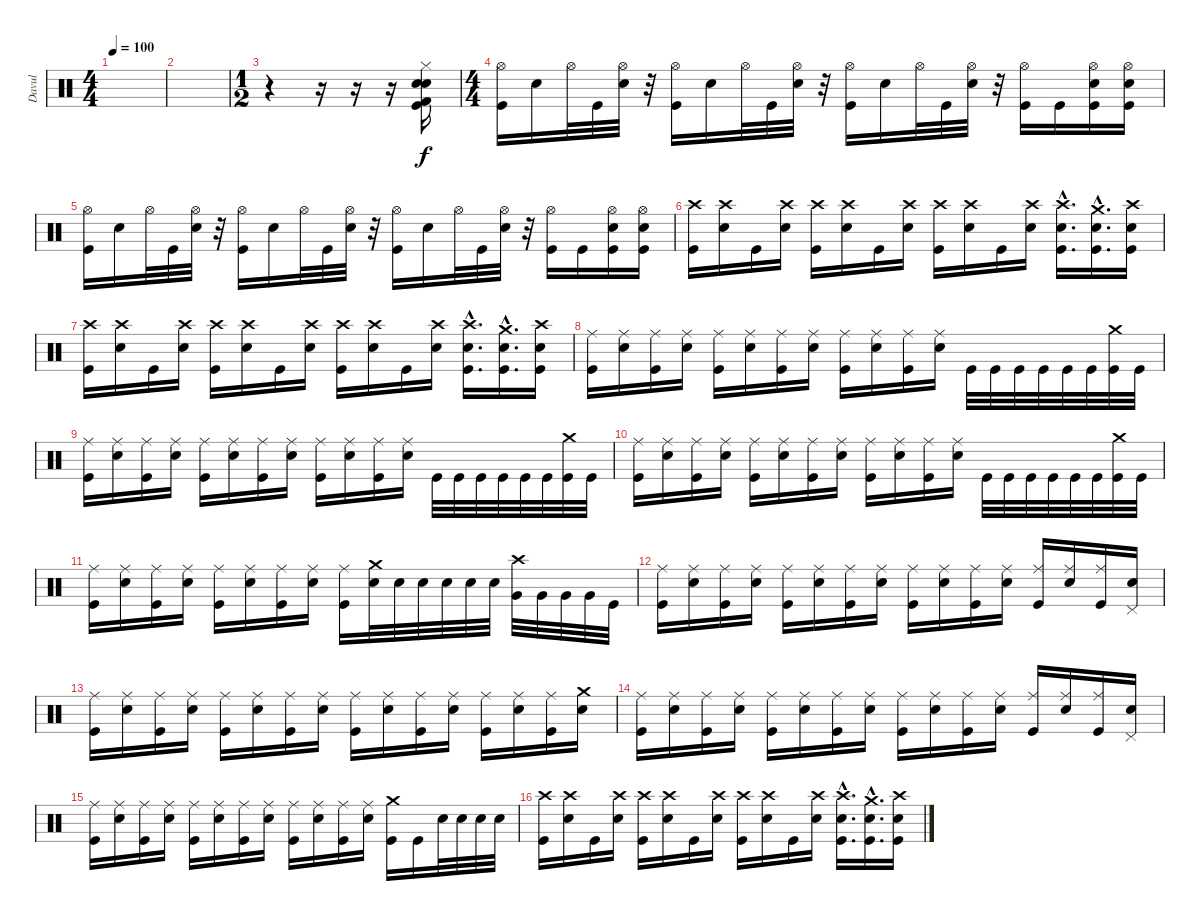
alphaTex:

\track ("Davul" "Davul") {instrument percussion}
\staff {score}
\articulation defaults
\ts (4 4)
\tempo 100
\clef neutral
\ks c
|
|
\ts (1 2)
r.4 r.16 r.16 r.16 ("Hi-Hat (closed)" "Kick (hit) 2" "Electric Snare (hit)" "Snare (hit) 2" "Kick (hit)").16 |
\ts (4 4)
("Hi-Hat (open)" "Kick (hit)").16 "Electric Snare (hit)".16 "Hi-Hat (open)".32 "Kick (hit)".32 ("Hi-Hat (open)" "Electric Snare (hit)").32 r.32 ("Hi-Hat (open)" "Kick (hit)").16 "Electric Snare (hit)".16 "Hi-Hat (open)".32 "Kick (hit)".32 ("Hi-Hat (open)" "Electric Snare (hit)").32 r.32 ("Hi-Hat (open)" "Kick (hit)").16 "Electric Snare (hit)".16 "Hi-Hat (open)".32 "Kick (hit)".32 ("Hi-Hat (open)" "Electric Snare (hit)").32 r.32 ("Hi-Hat (open)" "Kick (hit)").16 "Kick (hit)".16 ("Hi-Hat (open)" "Electric Snare (hit)" "Kick (hit)").16 ("Hi-Hat (open)" "Electric Snare (hit)" "Kick (hit)").16 |
("Hi-Hat (open)" "Kick (hit)").16 "Electric Snare (hit)".16 "Hi-Hat (open)".32 "Kick (hit)".32 ("Hi-Hat (open)" "Electric Snare (hit)").32 r.32 ("Hi-Hat (open)" "Kick (hit)").16 "Electric Snare (hit)".16 "Hi-Hat (open)".32 "Kick (hit)".32 ("Hi-Hat (open)" "Electric Snare (hit)").32 r.32 ("Hi-Hat (open)" "Kick (hit)").16 "Electric Snare (hit)".16 "Hi-Hat (open)".32 "Kick (hit)".32 ("Hi-Hat (open)" "Electric Snare (hit)").32 r.32 ("Hi-Hat (open)" "Kick (hit)").16 "Kick (hit)".16 ("Hi-Hat (open)" "Electric Snare (hit)" "Kick (hit)").16 ("Hi-Hat (open)" "Electric Snare (hit)" "Kick (hit)").16 |
("Crash high (hit)" "Kick (hit)").16 ("Crash high (hit)" "Electric Snare (hit)").16 "Kick (hit)".16 ("Crash high (hit)" "Electric Snare (hit)").16 ("Crash high (hit)" "Kick (hit)").16 ("Crash high (hit)" "Electric Snare (hit)").16 "Kick (hit)".16 ("Crash high (hit)" "Electric Snare (hit)").16 ("Crash high (hit)" "Kick (hit)").16 ("Crash high (hit)" "Electric Snare (hit)").16 "Kick (hit)".16 ("Crash high (hit)" "Electric Snare (hit)").16 ("Crash high (hit)"{hac} "Electric Snare (hit)"{hac} "Kick (hit)"{hac}).16{d} ("Crash medium (hit)"{hac} "Electric Snare (hit)"{hac} "Kick (hit)"{hac}).16{d} ("Crash high (hit)" "Electric Snare (hit)" "Kick (hit)").16 |
("Crash high (hit)" "Kick (hit)").16 ("Crash high (hit)" "Electric Snare (hit)").16 "Kick (hit)".16 ("Crash high (hit)" "Electric Snare (hit)").16 ("Crash high (hit)" "Kick (hit)").16 ("Crash high (hit)" "Electric Snare (hit)").16 "Kick (hit)".16 ("Crash high (hit)" "Electric Snare (hit)").16 ("Crash high (hit)" "Kick (hit)").16 ("Crash high (hit)" "Electric Snare (hit)").16 "Kick (hit)".16 ("Crash high (hit)" "Electric Snare (hit)").16 ("Crash high (hit)"{hac} "Electric Snare (hit)"{hac} "Kick (hit)"{hac}).16{d} ("Crash medium (hit)"{hac} "Electric Snare (hit)"{hac} "Kick (hit)"{hac}).16{d} ("Crash high (hit)" "Electric Snare (hit)" "Kick (hit)").16 |
("Ride (middle)" "Kick (hit)").16 ("Ride (middle)" "Electric Snare (hit)").16 ("Ride (middle)" "Kick (hit)").16 ("Ride (middle)" "Electric Snare (hit)").16 ("Ride (middle)" "Kick (hit)").16 ("Ride (middle)" "Electric Snare (hit)").16 ("Ride (middle)" "Kick (hit)").16 ("Ride (middle)" "Electric Snare (hit)").16 ("Ride (middle)" "Kick (hit)").16 ("Ride (middle)" "Electric Snare (hit)").16 ("Ride (middle)" "Kick (hit)").16 ("Ride (middle)" "Electric Snare (hit)").16 "Kick (hit)".32 "Kick (hit)".32 "Kick (hit)".32 "Kick (hit)".32 "Kick (hit)".32 "Kick (hit)".32 ("Crash medium (hit)" "Kick (hit)").32 "Kick (hit)".32 |
("Ride (middle)" "Kick (hit)").16 ("Ride (middle)" "Electric Snare (hit)").16 ("Ride (middle)" "Kick (hit)").16 ("Ride (middle)" "Electric Snare (hit)").16 ("Ride (middle)" "Kick (hit)").16 ("Ride (middle)" "Electric Snare (hit)").16 ("Ride (middle)" "Kick (hit)").16 ("Ride (middle)" "Electric Snare (hit)").16 ("Ride (middle)" "Kick (hit)").16 ("Ride (middle)" "Electric Snare (hit)").16 ("Ride (middle)" "Kick (hit)").16 ("Ride (middle)" "Electric Snare (hit)").16 "Kick (hit)".32 "Kick (hit)".32 "Kick (hit)".32 "Kick (hit)".32 "Kick (hit)".32 "Kick (hit)".32 ("Crash medium (hit)" "Kick (hit)").32 "Kick (hit)".32 |
("Ride (middle)" "Kick (hit)").16 ("Ride (middle)" "Electric Snare (hit)").16 ("Ride (middle)" "Kick (hit)").16 ("Ride (middle)" "Electric Snare (hit)").16 ("Ride (middle)" "Kick (hit)").16 ("Ride (middle)" "Electric Snare (hit)").16 ("Ride (middle)" "Kick (hit)").16 ("Ride (middle)" "Electric Snare (hit)").16 ("Ride (middle)" "Kick (hit)").16 ("Ride (middle)" "Electric Snare (hit)").16 ("Ride (middle)" "Kick (hit)").16 ("Ride (middle)" "Electric Snare (hit)").16 "Kick (hit)".32 "Kick (hit)".32 "Kick (hit)".32 "Kick (hit)".32 "Kick (hit)".32 "Kick (hit)".32 ("Crash medium (hit)" "Kick (hit)").32 "Kick (hit)".32 |
("Ride (middle)" "Kick (hit)").16 ("Ride (middle)" "Electric Snare (hit)").16 ("Ride (middle)" "Kick (hit)").16 ("Ride (middle)" "Electric Snare (hit)").16 ("Ride (middle)" "Kick (hit)").16 ("Ride (middle)" "Electric Snare (hit)").16 ("Ride (middle)" "Kick (hit)").16 ("Ride (middle)" "Electric Snare (hit)").16 ("Ride (middle)" "Kick (hit)").16 ("Crash medium (hit)" "Electric Snare (hit)").32 "Electric Snare (hit)".32 "Electric Snare (hit)".32 "Electric Snare (hit)".32 "Electric Snare (hit)".32 "Electric Snare (hit)".32 ("Crash high (hit)" "Very Low Tom (hit)").32 "Very Low Tom (hit)".32 "Very Low Tom (hit)".32 "Very Low Tom (hit)".32 "Kick (hit)".32 |
("Ride (middle)" "Kick (hit)").16 ("Ride (middle)" "Electric Snare (hit)").16 ("Ride (middle)" "Kick (hit)").16 ("Ride (middle)" "Electric Snare (hit)").16 ("Ride (middle)" "Kick (hit)").16 ("Ride (middle)" "Electric Snare (hit)").16 ("Ride (middle)" "Kick (hit)").16 ("Ride (middle)" "Electric Snare (hit)").16 ("Ride (middle)" "Kick (hit)").16 ("Ride (middle)" "Electric Snare (hit)").16 ("Ride (middle)" "Kick (hit)").16 ("Ride (middle)" "Electric Snare (hit)").16 ("Ride (middle)" "Kick (hit)").16 ("Ride (middle)" "Electric Snare (hit)").16 ("Ride (middle)" "Kick (hit)").16 ("Pedal Hi-Hat (hit)" "Electric Snare (hit)").16 |
("Ride (middle)" "Kick (hit)").16 ("Ride (middle)" "Electric Snare (hit)").16 ("Ride (middle)" "Kick (hit)").16 ("Ride (middle)" "Electric Snare (hit)").16 ("Ride (middle)" "Kick (hit)").16 ("Ride (middle)" "Electric Snare (hit)").16 ("Ride (middle)" "Kick (hit)").16 ("Ride (middle)" "Electric Snare (hit)").16 ("Ride (middle)" "Kick (hit)").16 ("Ride (middle)" "Electric Snare (hit)").16 ("Ride (middle)" "Kick (hit)").16 ("Ride (middle)" "Electric Snare (hit)").16 ("Ride (middle)" "Kick (hit)").16 ("Ride (middle)" "Electric Snare (hit)").16 ("Ride (middle)" "Kick (hit)").16 ("Crash medium (hit)" "Electric Snare (hit)").16 |
("Ride (middle)" "Kick (hit)").16 ("Ride (middle)" "Electric Snare (hit)").16 ("Ride (middle)" "Kick (hit)").16 ("Ride (middle)" "Electric Snare (hit)").16 ("Ride (middle)" "Kick (hit)").16 ("Ride (middle)" "Electric Snare (hit)").16 ("Ride (middle)" "Kick (hit)").16 ("Ride (middle)" "Electric Snare (hit)").16 ("Ride (middle)" "Kick (hit)").16 ("Ride (middle)" "Electric Snare (hit)").16 ("Ride (middle)" "Kick (hit)").16 ("Ride (middle)" "Electric Snare (hit)").16 ("Ride (middle)" "Kick (hit)").16 ("Ride (middle)" "Electric Snare (hit)").16 ("Ride (middle)" "Kick (hit)").16 ("Pedal Hi-Hat (hit)" "Electric Snare (hit)").16 |
("Ride (middle)" "Kick (hit)").16 ("Ride (middle)" "Electric Snare (hit)").16 ("Ride (middle)" "Kick (hit)").16 ("Ride (middle)" "Electric Snare (hit)").16 ("Ride (middle)" "Kick (hit)").16 ("Ride (middle)" "Electric Snare (hit)").16 ("Ride (middle)" "Kick (hit)").16 ("Ride (middle)" "Electric Snare (hit)").16 ("Ride (middle)" "Kick (hit)").16 ("Ride (middle)" "Electric Snare (hit)").16 ("Ride (middle)" "Kick (hit)").16 ("Ride (middle)" "Electric Snare (hit)").16 ("Crash medium (hit)" "Kick (hit)").16 "Kick (hit)".16 "Electric Snare (hit)".32 "Electric Snare (hit)".32 "Electric Snare (hit)".32 "Electric Snare (hit)".32 |
("Crash high (hit)" "Kick (hit)").16 ("Crash high (hit)" "Electric Snare (hit)").16 "Kick (hit)".16 ("Crash high (hit)" "Electric Snare (hit)").16 ("Crash high (hit)" "Kick (hit)").16 ("Crash high (hit)" "Electric Snare (hit)").16 "Kick (hit)".16 ("Crash high (hit)" "Electric Snare (hit)").16 ("Crash high (hit)" "Kick (hit)").16 ("Crash high (hit)" "Electric Snare (hit)").16 "Kick (hit)".16 ("Crash high (hit)" "Electric Snare (hit)").16 ("Crash high (hit)"{hac} "Electric Snare (hit)"{hac} "Kick (hit)"{hac}).16{d} ("Crash medium (hit)"{hac} "Electric Snare (hit)"{hac} "Kick (hit)"{hac}).16{d} ("Crash high (hit)" "Electric Snare (hit)" "Kick (hit)").16
